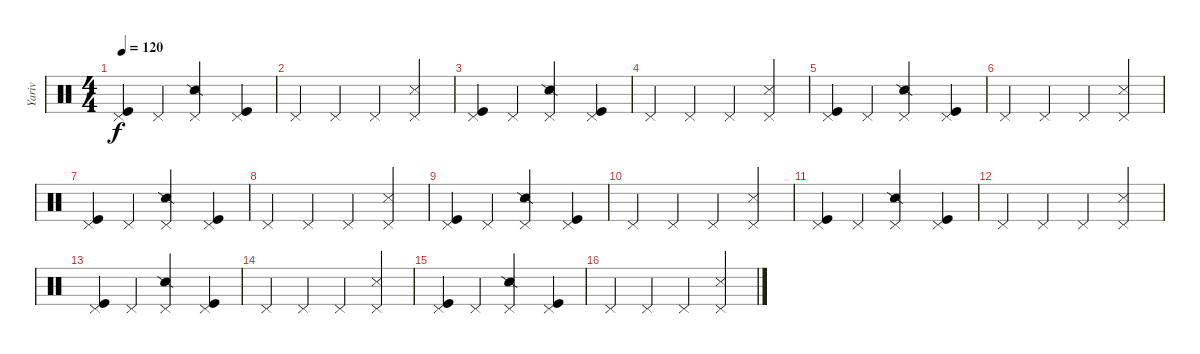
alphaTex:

\track ("Yariv" "Yariv") {instrument percussion}
\staff {score}
\articulation defaults
\ts (4 4)
\tempo 120
\clef neutral
\ks c
("Pedal Hi-Hat (hit)" "Kick (hit)").4{dy f} "Pedal Hi-Hat (hit)".4 ("Pedal Hi-Hat (hit)" "Snare (side stick) 2").4 ("Pedal Hi-Hat (hit)" "Kick (hit)").4 |
"Pedal Hi-Hat (hit)".4 "Pedal Hi-Hat (hit)".4 "Pedal Hi-Hat (hit)".4 ("Pedal Hi-Hat (hit)" "Snare (side stick) 3").4 |
("Pedal Hi-Hat (hit)" "Kick (hit)").4 "Pedal Hi-Hat (hit)".4 ("Pedal Hi-Hat (hit)" "Snare (side stick) 2").4 ("Pedal Hi-Hat (hit)" "Kick (hit)").4 |
"Pedal Hi-Hat (hit)".4 "Pedal Hi-Hat (hit)".4 "Pedal Hi-Hat (hit)".4 ("Pedal Hi-Hat (hit)" "Snare (side stick) 3").4 |
("Pedal Hi-Hat (hit)" "Kick (hit)").4 "Pedal Hi-Hat (hit)".4 ("Pedal Hi-Hat (hit)" "Snare (side stick) 2").4 ("Pedal Hi-Hat (hit)" "Kick (hit)").4 |
"Pedal Hi-Hat (hit)".4 "Pedal Hi-Hat (hit)".4 "Pedal Hi-Hat (hit)".4 ("Pedal Hi-Hat (hit)" "Snare (side stick) 3").4 |
("Pedal Hi-Hat (hit)" "Kick (hit)").4 "Pedal Hi-Hat (hit)".4 ("Pedal Hi-Hat (hit)" "Snare (side stick) 2").4 ("Pedal Hi-Hat (hit)" "Kick (hit)").4 |
"Pedal Hi-Hat (hit)".4 "Pedal Hi-Hat (hit)".4 "Pedal Hi-Hat (hit)".4 ("Pedal Hi-Hat (hit)" "Snare (side stick) 3").4 |
("Pedal Hi-Hat (hit)" "Kick (hit)").4 "Pedal Hi-Hat (hit)".4 ("Pedal Hi-Hat (hit)" "Snare (side stick) 2").4 ("Pedal Hi-Hat (hit)" "Kick (hit)").4 |
"Pedal Hi-Hat (hit)".4 "Pedal Hi-Hat (hit)".4 "Pedal Hi-Hat (hit)".4 ("Pedal Hi-Hat (hit)" "Snare (side stick) 3").4 |
("Pedal Hi-Hat (hit)" "Kick (hit)").4 "Pedal Hi-Hat (hit)".4 ("Pedal Hi-Hat (hit)" "Snare (side stick) 2").4 ("Pedal Hi-Hat (hit)" "Kick (hit)").4 |
"Pedal Hi-Hat (hit)".4 "Pedal Hi-Hat (hit)".4 "Pedal Hi-Hat (hit)".4 ("Pedal Hi-Hat (hit)" "Snare (side stick) 3").4 |
("Pedal Hi-Hat (hit)" "Kick (hit)").4 "Pedal Hi-Hat (hit)".4 ("Pedal Hi-Hat (hit)" "Snare (side stick) 2").4 ("Pedal Hi-Hat (hit)" "Kick (hit)").4 |
"Pedal Hi-Hat (hit)".4 "Pedal Hi-Hat (hit)".4 "Pedal Hi-Hat (hit)".4 ("Pedal Hi-Hat (hit)" "Snare (side stick) 3").4 |
("Pedal Hi-Hat (hit)" "Kick (hit)").4 "Pedal Hi-Hat (hit)".4 ("Pedal Hi-Hat (hit)" "Snare (side stick) 2").4 ("Pedal Hi-Hat (hit)" "Kick (hit)").4 |
"Pedal Hi-Hat (hit)".4 "Pedal Hi-Hat (hit)".4 "Pedal Hi-Hat (hit)".4 ("Pedal Hi-Hat (hit)" "Snare (side stick) 3").4
